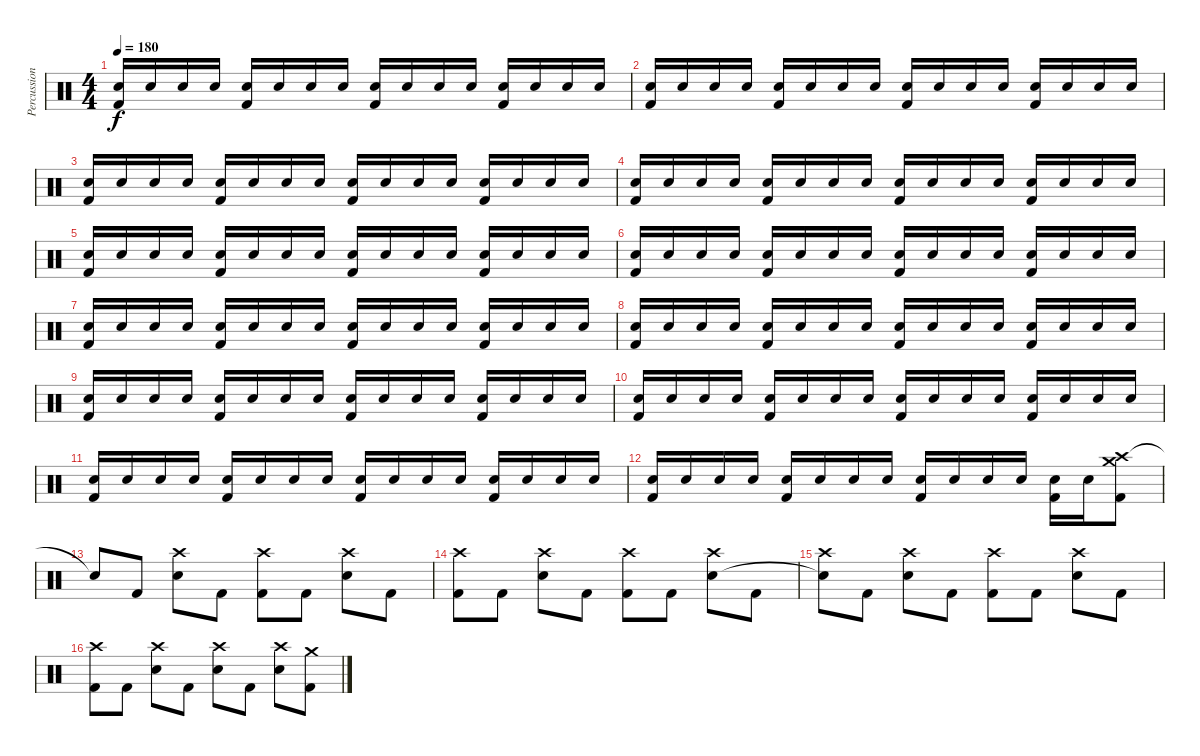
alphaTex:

\track ("Percussion" "Percussion") {instrument percussion}
\staff {score}
\articulation defaults
\ts (4 4)
\tempo 180
\clef neutral
\ks c
("Kick (hit) 2" "Snare (hit) 2").16{dy f volume 13} "Snare (hit) 2".16{volume 5} "Snare (hit) 2".16 "Snare (hit) 2".16 ("Kick (hit) 2" "Snare (hit) 2").16 "Snare (hit) 2".16 "Snare (hit) 2".16 "Snare (hit) 2".16 ("Kick (hit) 2" "Snare (hit) 2").16 "Snare (hit) 2".16 "Snare (hit) 2".16 "Snare (hit) 2".16 ("Kick (hit) 2" "Snare (hit) 2").16 "Snare (hit) 2".16 "Snare (hit) 2".16 "Snare (hit) 2".16 |
("Kick (hit) 2" "Snare (hit) 2").16 "Snare (hit) 2".16 "Snare (hit) 2".16 "Snare (hit) 2".16 ("Kick (hit) 2" "Snare (hit) 2").16 "Snare (hit) 2".16 "Snare (hit) 2".16 "Snare (hit) 2".16 ("Kick (hit) 2" "Snare (hit) 2").16 "Snare (hit) 2".16 "Snare (hit) 2".16{volume 13} "Snare (hit) 2".16{volume 5} ("Kick (hit) 2" "Snare (hit) 2").16 "Snare (hit) 2".16 "Snare (hit) 2".16{volume 13} "Snare (hit) 2".16{volume 5} |
("Kick (hit) 2" "Snare (hit) 2").16{volume 13} "Snare (hit) 2".16{volume 5} "Snare (hit) 2".16 "Snare (hit) 2".16 ("Kick (hit) 2" "Snare (hit) 2").16 "Snare (hit) 2".16 "Snare (hit) 2".16 "Snare (hit) 2".16 ("Kick (hit) 2" "Snare (hit) 2").16 "Snare (hit) 2".16 "Snare (hit) 2".16 "Snare (hit) 2".16 ("Kick (hit) 2" "Snare (hit) 2").16 "Snare (hit) 2".16 "Snare (hit) 2".16 "Snare (hit) 2".16 |
("Kick (hit) 2" "Snare (hit) 2").16 "Snare (hit) 2".16 "Snare (hit) 2".16 "Snare (hit) 2".16 ("Kick (hit) 2" "Snare (hit) 2").16 "Snare (hit) 2".16 "Snare (hit) 2".16 "Snare (hit) 2".16 ("Kick (hit) 2" "Snare (hit) 2").16 "Snare (hit) 2".16 "Snare (hit) 2".16{volume 13} "Snare (hit) 2".16{volume 5} ("Kick (hit) 2" "Snare (hit) 2").16 "Snare (hit) 2".16 "Snare (hit) 2".16{volume 13} "Snare (hit) 2".16{volume 5} |
("Kick (hit) 2" "Snare (hit) 2").16{volume 13} "Snare (hit) 2".16{volume 5} "Snare (hit) 2".16 "Snare (hit) 2".16 ("Kick (hit) 2" "Snare (hit) 2").16 "Snare (hit) 2".16 "Snare (hit) 2".16 "Snare (hit) 2".16 ("Kick (hit) 2" "Snare (hit) 2").16 "Snare (hit) 2".16 "Snare (hit) 2".16 "Snare (hit) 2".16 ("Kick (hit) 2" "Snare (hit) 2").16 "Snare (hit) 2".16 "Snare (hit) 2".16 "Snare (hit) 2".16 |
("Kick (hit) 2" "Snare (hit) 2").16 "Snare (hit) 2".16 "Snare (hit) 2".16 "Snare (hit) 2".16 ("Kick (hit) 2" "Snare (hit) 2").16 "Snare (hit) 2".16 "Snare (hit) 2".16 "Snare (hit) 2".16 ("Kick (hit) 2" "Snare (hit) 2").16 "Snare (hit) 2".16 "Snare (hit) 2".16{volume 13} "Snare (hit) 2".16{volume 5} ("Kick (hit) 2" "Snare (hit) 2").16 "Snare (hit) 2".16 "Snare (hit) 2".16{volume 13} "Snare (hit) 2".16{volume 5} |
("Kick (hit) 2" "Snare (hit) 2").16{volume 13} "Snare (hit) 2".16{volume 5} "Snare (hit) 2".16 "Snare (hit) 2".16 ("Kick (hit) 2" "Snare (hit) 2").16 "Snare (hit) 2".16 "Snare (hit) 2".16 "Snare (hit) 2".16 ("Kick (hit) 2" "Snare (hit) 2").16 "Snare (hit) 2".16 "Snare (hit) 2".16 "Snare (hit) 2".16 ("Kick (hit) 2" "Snare (hit) 2").16 "Snare (hit) 2".16 "Snare (hit) 2".16 "Snare (hit) 2".16 |
("Kick (hit) 2" "Snare (hit) 2").16 "Snare (hit) 2".16 "Snare (hit) 2".16 "Snare (hit) 2".16 ("Kick (hit) 2" "Snare (hit) 2").16 "Snare (hit) 2".16 "Snare (hit) 2".16 "Snare (hit) 2".16 ("Kick (hit) 2" "Snare (hit) 2").16 "Snare (hit) 2".16 "Snare (hit) 2".16{volume 13} "Snare (hit) 2".16{volume 5} ("Kick (hit) 2" "Snare (hit) 2").16 "Snare (hit) 2".16 "Snare (hit) 2".16{volume 13} "Snare (hit) 2".16{volume 5} |
("Kick (hit) 2" "Snare (hit) 2").16{volume 13} "Snare (hit) 2".16{volume 5} "Snare (hit) 2".16 "Snare (hit) 2".16 ("Kick (hit) 2" "Snare (hit) 2").16 "Snare (hit) 2".16 "Snare (hit) 2".16 "Snare (hit) 2".16 ("Kick (hit) 2" "Snare (hit) 2").16 "Snare (hit) 2".16 "Snare (hit) 2".16 "Snare (hit) 2".16 ("Kick (hit) 2" "Snare (hit) 2").16 "Snare (hit) 2".16 "Snare (hit) 2".16 "Snare (hit) 2".16 |
("Kick (hit) 2" "Snare (hit) 2").16 "Snare (hit) 2".16 "Snare (hit) 2".16 "Snare (hit) 2".16 ("Kick (hit) 2" "Snare (hit) 2").16 "Snare (hit) 2".16 "Snare (hit) 2".16 "Snare (hit) 2".16 ("Kick (hit) 2" "Snare (hit) 2").16 "Snare (hit) 2".16 "Snare (hit) 2".16{volume 13} "Snare (hit) 2".16{volume 5} ("Kick (hit) 2" "Snare (hit) 2").16 "Snare (hit) 2".16 "Snare (hit) 2".16{volume 13} "Snare (hit) 2".16{volume 5} |
("Kick (hit) 2" "Snare (hit) 2").16{volume 13} "Snare (hit) 2".16{volume 5} "Snare (hit) 2".16 "Snare (hit) 2".16 ("Kick (hit) 2" "Snare (hit) 2").16 "Snare (hit) 2".16 "Snare (hit) 2".16 "Snare (hit) 2".16 ("Kick (hit) 2" "Snare (hit) 2").16 "Snare (hit) 2".16 "Snare (hit) 2".16 "Snare (hit) 2".16 ("Kick (hit) 2" "Snare (hit) 2").16 "Snare (hit) 2".16 "Snare (hit) 2".16 "Snare (hit) 2".16 |
("Kick (hit) 2" "Snare (hit) 2").16 "Snare (hit) 2".16 "Snare (hit) 2".16 "Snare (hit) 2".16 ("Kick (hit) 2" "Snare (hit) 2").16 "Snare (hit) 2".16 "Snare (hit) 2".16 "Snare (hit) 2".16 ("Kick (hit) 2" "Snare (hit) 2").16{volume 13} "Snare (hit) 2".16 "Snare (hit) 2".16 "Snare (hit) 2".16 ("Kick (hit) 2" "Snare (hit) 2").16 "Snare (hit) 2".16 ("Crash high (hit)" "Crash medium (hit)" "Kick (hit) 2").8 |
"Snare (hit)"{t}.8 "Kick (hit) 2".8 ("Crash high (hit)" "Snare (hit) 2").8 "Kick (hit) 2".8 ("Crash high (hit)" "Kick (hit) 2").8 "Kick (hit) 2".8 ("Crash high (hit)" "Snare (hit) 2").8 "Kick (hit) 2".8 |
("Crash high (hit)" "Kick (hit) 2").8 "Kick (hit) 2".8 ("Crash high (hit)" "Snare (hit) 2").8 "Kick (hit) 2".8 ("Crash high (hit)" "Kick (hit) 2").8 "Kick (hit) 2".8 ("Crash high (hit)" "Snare (hit) 2").8 "Kick (hit) 2".8 |
("Crash high (hit)" "Snare (hit)"{t}).8 "Kick (hit) 2".8 ("Crash high (hit)" "Snare (hit) 2").8 "Kick (hit) 2".8 ("Crash high (hit)" "Kick (hit) 2").8 "Kick (hit) 2".8 ("Crash high (hit)" "Snare (hit) 2").8 "Kick (hit) 2".8 |
("Crash high (hit)" "Kick (hit) 2").8 "Kick (hit) 2".8 ("Crash high (hit)" "Snare (hit) 2").8 "Kick (hit) 2".8 ("Crash high (hit)" "Snare (hit) 2").8 "Kick (hit) 2".8 ("Crash high (hit)" "Snare (hit) 2").8 ("Crash medium (hit)" "Kick (hit) 2").8
